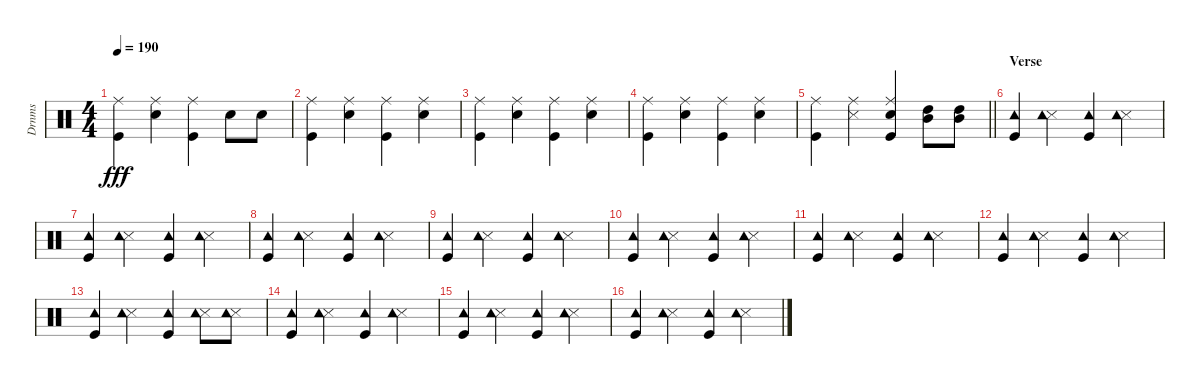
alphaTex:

\track ("Drnms" "Drnms") {instrument percussion}
\staff {score}
\articulation defaults
\ts (4 4)
\tempo 190
\clef neutral
\ks c
("Kick (hit)" "Ride (middle)").4{dy fff} ("Snare (hit) 2" "Ride (middle)").4 ("Kick (hit)" "Ride (middle)").4 "Snare (hit) 2".8 "Snare (hit) 2".8 |
("Kick (hit)" "Ride (middle)").4 ("Snare (hit) 2" "Ride (middle)").4 ("Kick (hit)" "Ride (middle)").4 ("Snare (hit) 2" "Ride (middle)").4 |
("Kick (hit)" "Ride (middle)").4 ("Snare (hit) 2" "Ride (middle)").4 ("Kick (hit)" "Ride (middle)").4 ("Snare (hit) 2" "Ride (middle)").4 |
("Kick (hit)" "Ride (middle)").4 ("Snare (hit) 2" "Ride (middle)").4 ("Kick (hit)" "Ride (middle)").4 ("Snare (hit) 2" "Ride (middle)").4 |
\barLineRight lightlight
("Kick (hit)" "Ride (middle)").4 ("Snare (side stick) 3" "Ride (middle)").4 ("Kick (hit)" "Snare (hit) 2" "Ride (middle)").4 ("Mid Tom (hit)" "High Tom (hit)").8 ("Mid Tom (hit)" "High Tom (hit)").8 |
\section ("" "Verse")
("Kick (hit)" "Tambourine (hit)").4 ("Snare (side stick) 3" "Tambourine (hit)").4 ("Kick (hit)" "Tambourine (hit)").4 ("Snare (side stick) 3" "Tambourine (hit)").4 |
("Kick (hit)" "Tambourine (hit)").4 ("Snare (side stick) 3" "Tambourine (hit)").4 ("Kick (hit)" "Tambourine (hit)").4 ("Snare (side stick) 3" "Tambourine (hit)").4 |
("Kick (hit)" "Tambourine (hit)").4 ("Snare (side stick) 3" "Tambourine (hit)").4 ("Kick (hit)" "Tambourine (hit)").4 ("Snare (side stick) 3" "Tambourine (hit)").4 |
("Kick (hit)" "Tambourine (hit)").4 ("Snare (side stick) 3" "Tambourine (hit)").4 ("Kick (hit)" "Tambourine (hit)").4 ("Snare (side stick) 3" "Tambourine (hit)").4 |
("Kick (hit)" "Tambourine (hit)").4 ("Snare (side stick) 3" "Tambourine (hit)").4 ("Kick (hit)" "Tambourine (hit)").4 ("Snare (side stick) 3" "Tambourine (hit)").4 |
("Kick (hit)" "Tambourine (hit)").4 ("Snare (side stick) 3" "Tambourine (hit)").4 ("Kick (hit)" "Tambourine (hit)").4 ("Snare (side stick) 3" "Tambourine (hit)").4 |
("Kick (hit)" "Tambourine (hit)").4 ("Snare (side stick) 3" "Tambourine (hit)").4 ("Kick (hit)" "Tambourine (hit)").4 ("Snare (side stick) 3" "Tambourine (hit)").4 |
("Kick (hit)" "Tambourine (hit)").4 ("Snare (side stick) 3" "Tambourine (hit)").4 ("Kick (hit)" "Tambourine (hit)").4 ("Snare (side stick) 3" "Tambourine (hit)").8 ("Snare (side stick) 3" "Tambourine (hit)").8 |
("Kick (hit)" "Tambourine (hit)").4 ("Snare (side stick) 3" "Tambourine (hit)").4 ("Kick (hit)" "Tambourine (hit)").4 ("Snare (side stick) 3" "Tambourine (hit)").4 |
("Kick (hit)" "Tambourine (hit)").4 ("Snare (side stick) 3" "Tambourine (hit)").4 ("Kick (hit)" "Tambourine (hit)").4 ("Snare (side stick) 3" "Tambourine (hit)").4 |
("Kick (hit)" "Tambourine (hit)").4 ("Snare (side stick) 3" "Tambourine (hit)").4 ("Kick (hit)" "Tambourine (hit)").4 ("Snare (side stick) 3" "Tambourine (hit)").4
